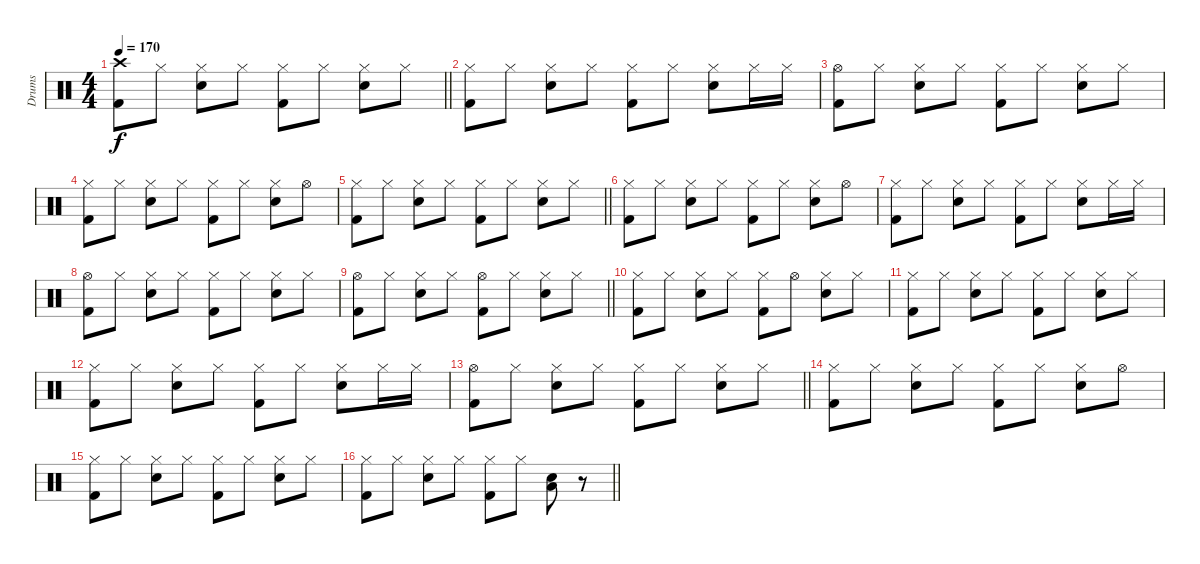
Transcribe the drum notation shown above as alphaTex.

\track ("Drums" "Drums") {instrument percussion}
\staff {score}
\articulation defaults
\ts (4 4)
\tempo 170
\clef neutral
\barLineRight lightlight
\ks c
("Crash high (hit)" "Kick (hit) 2").8{dy f} "Hi-Hat (closed)".8 ("Hi-Hat (closed)" "Electric Snare (hit)").8 "Hi-Hat (closed)".8 ("Hi-Hat (closed)" "Kick (hit) 2").8 "Hi-Hat (closed)".8 ("Hi-Hat (closed)" "Electric Snare (hit)").8 "Hi-Hat (closed)".8 |
("Hi-Hat (closed)" "Kick (hit) 2").8 "Hi-Hat (closed)".8 ("Hi-Hat (closed)" "Electric Snare (hit)").8 "Hi-Hat (closed)".8 ("Hi-Hat (closed)" "Kick (hit) 2").8 "Hi-Hat (closed)".8 ("Hi-Hat (closed)" "Electric Snare (hit)").8 "Hi-Hat (closed)".16 "Hi-Hat (closed)".16 |
("Hi-Hat (open)" "Kick (hit) 2").8 "Hi-Hat (closed)".8 ("Hi-Hat (closed)" "Electric Snare (hit)").8 "Hi-Hat (closed)".8 ("Hi-Hat (closed)" "Kick (hit) 2").8 "Hi-Hat (closed)".8 ("Hi-Hat (closed)" "Electric Snare (hit)").8 "Hi-Hat (closed)".8 |
("Hi-Hat (closed)" "Kick (hit) 2").8 "Hi-Hat (closed)".8 ("Hi-Hat (closed)" "Electric Snare (hit)").8 "Hi-Hat (closed)".8 ("Hi-Hat (closed)" "Kick (hit) 2").8 "Hi-Hat (closed)".8 ("Hi-Hat (closed)" "Electric Snare (hit)").8 "Hi-Hat (open)".8 |
\barLineRight lightlight
("Hi-Hat (closed)" "Kick (hit) 2").8 "Hi-Hat (closed)".8 ("Hi-Hat (closed)" "Electric Snare (hit)").8 "Hi-Hat (closed)".8 ("Hi-Hat (closed)" "Kick (hit) 2").8 "Hi-Hat (closed)".8 ("Hi-Hat (closed)" "Electric Snare (hit)").8 "Hi-Hat (closed)".8 |
("Hi-Hat (closed)" "Kick (hit) 2").8 "Hi-Hat (closed)".8 ("Hi-Hat (closed)" "Electric Snare (hit)").8 "Hi-Hat (closed)".8 ("Hi-Hat (closed)" "Kick (hit) 2").8 "Hi-Hat (closed)".8 ("Hi-Hat (closed)" "Electric Snare (hit)").8 "Hi-Hat (open)".8 |
("Hi-Hat (closed)" "Kick (hit) 2").8 "Hi-Hat (closed)".8 ("Hi-Hat (closed)" "Electric Snare (hit)").8 "Hi-Hat (closed)".8 ("Hi-Hat (closed)" "Kick (hit) 2").8 "Hi-Hat (closed)".8 ("Hi-Hat (closed)" "Electric Snare (hit)").8 "Hi-Hat (closed)".16 "Hi-Hat (closed)".16 |
("Hi-Hat (open)" "Kick (hit) 2").8 "Hi-Hat (closed)".8 ("Hi-Hat (closed)" "Electric Snare (hit)").8 "Hi-Hat (closed)".8 ("Hi-Hat (closed)" "Kick (hit) 2").8 "Hi-Hat (closed)".8 ("Hi-Hat (closed)" "Electric Snare (hit)").8 "Hi-Hat (closed)".8 |
\barLineRight lightlight
("Hi-Hat (open)" "Kick (hit) 2").8 "Hi-Hat (closed)".8 ("Hi-Hat (closed)" "Electric Snare (hit)").8 "Hi-Hat (closed)".8 ("Hi-Hat (open)" "Kick (hit) 2").8 "Hi-Hat (closed)".8 ("Hi-Hat (closed)" "Electric Snare (hit)").8 "Hi-Hat (closed)".8 |
("Hi-Hat (closed)" "Kick (hit) 2").8 "Hi-Hat (closed)".8 ("Hi-Hat (closed)" "Electric Snare (hit)").8 "Hi-Hat (closed)".8 ("Hi-Hat (closed)" "Kick (hit) 2").8 "Hi-Hat (open)".8 ("Hi-Hat (closed)" "Electric Snare (hit)").8 "Hi-Hat (closed)".8 |
("Hi-Hat (closed)" "Kick (hit) 2").8 "Hi-Hat (closed)".8 ("Hi-Hat (closed)" "Electric Snare (hit)").8 "Hi-Hat (closed)".8 ("Hi-Hat (closed)" "Kick (hit) 2").8 "Hi-Hat (closed)".8 ("Hi-Hat (closed)" "Electric Snare (hit)").8 "Hi-Hat (closed)".8 |
("Hi-Hat (closed)" "Kick (hit) 2").8 "Hi-Hat (closed)".8 ("Hi-Hat (closed)" "Electric Snare (hit)").8 "Hi-Hat (closed)".8 ("Hi-Hat (closed)" "Kick (hit) 2").8 "Hi-Hat (closed)".8 ("Hi-Hat (closed)" "Electric Snare (hit)").8 "Hi-Hat (closed)".16 "Hi-Hat (closed)".16 |
\barLineRight lightlight
("Hi-Hat (open)" "Kick (hit) 2").8 "Hi-Hat (closed)".8 ("Hi-Hat (closed)" "Electric Snare (hit)").8 "Hi-Hat (closed)".8 ("Hi-Hat (closed)" "Kick (hit) 2").8 "Hi-Hat (closed)".8 ("Hi-Hat (closed)" "Electric Snare (hit)").8 "Hi-Hat (closed)".8 |
("Hi-Hat (closed)" "Kick (hit) 2").8 "Hi-Hat (closed)".8 ("Hi-Hat (closed)" "Electric Snare (hit)").8 "Hi-Hat (closed)".8 ("Hi-Hat (closed)" "Kick (hit) 2").8 "Hi-Hat (closed)".8 ("Hi-Hat (closed)" "Electric Snare (hit)").8 "Hi-Hat (open)".8 |
("Hi-Hat (closed)" "Kick (hit) 2").8 "Hi-Hat (closed)".8 ("Hi-Hat (closed)" "Electric Snare (hit)").8 "Hi-Hat (closed)".8 ("Hi-Hat (closed)" "Kick (hit) 2").8 "Hi-Hat (closed)".8 ("Hi-Hat (closed)" "Electric Snare (hit)").8 "Hi-Hat (closed)".8 |
\barLineRight lightlight
("Hi-Hat (closed)" "Kick (hit) 2").8 "Hi-Hat (closed)".8 ("Hi-Hat (closed)" "Electric Snare (hit)").8 "Hi-Hat (closed)".8 ("Hi-Hat (closed)" "Kick (hit) 2").8 "Hi-Hat (closed)".8 ("Electric Snare (hit)" "Low Floor Tom (hit)").8 r.8
